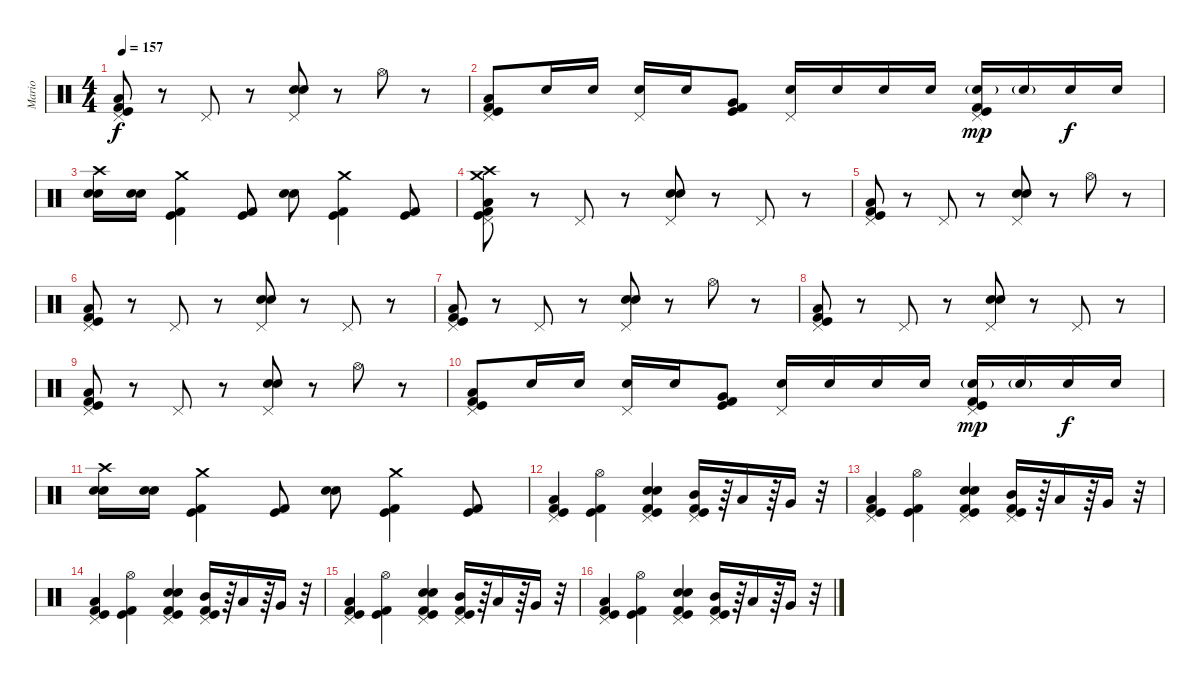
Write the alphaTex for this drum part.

\track ("Mario" "Mario") {instrument percussion}
\staff {score}
\articulation defaults
\ts (4 4)
\tempo 157
\clef neutral
\ks c
("Pedal Hi-Hat (hit)" "Low Floor Tom (hit)" "Kick (hit)" "Kick (hit) 2").8{dy f} r.8 "Pedal Hi-Hat (hit)".8 r.8 ("Pedal Hi-Hat (hit)" "Electric Snare (hit)" "Snare (hit) 2").8 r.8 "Hi-Hat (open)".8 r.8 |
("Pedal Hi-Hat (hit)" "Low Floor Tom (hit)" "Kick (hit)" "Kick (hit) 2").8 "Snare (hit) 2".16 "Snare (hit) 2".16 ("Pedal Hi-Hat (hit)" "Snare (hit) 2").16 "Snare (hit) 2".16 ("Very Low Tom (hit)" "Kick (hit)" "Kick (hit) 2").8 ("Pedal Hi-Hat (hit)" "Snare (hit) 2").16 "Snare (hit) 2".16 "Snare (hit) 2".16 "Snare (hit) 2".16 ("Pedal Hi-Hat (hit)" "Snare (hit) 2"{g} "Kick (hit)" "Kick (hit) 2").16{dy mp} "Snare (hit) 2"{g}.16 "Snare (hit) 2".16{dy f} "Snare (hit) 2".16 |
("Crash high (hit)" "Snare (hit) 2" "Electric Snare (hit)").16 ("Snare (hit) 2" "Electric Snare (hit)").16 ("Crash medium (hit)" "Kick (hit)" "Kick (hit) 2").4 ("Kick (hit)" "Kick (hit) 2").8 ("Snare (hit) 2" "Electric Snare (hit)").8 ("Crash medium (hit)" "Kick (hit)" "Kick (hit) 2").4 ("Kick (hit)" "Kick (hit) 2").8 |
("Pedal Hi-Hat (hit)" "Crash high (hit)" "Crash medium (hit)" "Low Floor Tom (hit)" "Kick (hit)" "Kick (hit) 2").8 r.8 "Pedal Hi-Hat (hit)".8 r.8 ("Pedal Hi-Hat (hit)" "Electric Snare (hit)" "Snare (hit) 2").8 r.8 "Pedal Hi-Hat (hit)".8 r.8 |
("Pedal Hi-Hat (hit)" "Low Floor Tom (hit)" "Kick (hit)" "Kick (hit) 2").8 r.8 "Pedal Hi-Hat (hit)".8 r.8 ("Pedal Hi-Hat (hit)" "Electric Snare (hit)" "Snare (hit) 2").8 r.8 "Hi-Hat (open)".8 r.8 |
("Pedal Hi-Hat (hit)" "Low Floor Tom (hit)" "Kick (hit)" "Kick (hit) 2").8 r.8 "Pedal Hi-Hat (hit)".8 r.8 ("Pedal Hi-Hat (hit)" "Electric Snare (hit)" "Snare (hit) 2").8 r.8 "Pedal Hi-Hat (hit)".8 r.8 |
("Pedal Hi-Hat (hit)" "Low Floor Tom (hit)" "Kick (hit)" "Kick (hit) 2").8 r.8 "Pedal Hi-Hat (hit)".8 r.8 ("Pedal Hi-Hat (hit)" "Electric Snare (hit)" "Snare (hit) 2").8 r.8 "Hi-Hat (open)".8 r.8 |
("Pedal Hi-Hat (hit)" "Low Floor Tom (hit)" "Kick (hit)" "Kick (hit) 2").8 r.8 "Pedal Hi-Hat (hit)".8 r.8 ("Pedal Hi-Hat (hit)" "Electric Snare (hit)" "Snare (hit) 2").8 r.8 "Pedal Hi-Hat (hit)".8 r.8 |
("Pedal Hi-Hat (hit)" "Low Floor Tom (hit)" "Kick (hit)" "Kick (hit) 2").8 r.8 "Pedal Hi-Hat (hit)".8 r.8 ("Pedal Hi-Hat (hit)" "Electric Snare (hit)" "Snare (hit) 2").8 r.8 "Hi-Hat (open)".8 r.8 |
("Pedal Hi-Hat (hit)" "Low Floor Tom (hit)" "Kick (hit)" "Kick (hit) 2").8 "Snare (hit) 2".16 "Snare (hit) 2".16 ("Pedal Hi-Hat (hit)" "Snare (hit) 2").16 "Snare (hit) 2".16 ("Very Low Tom (hit)" "Kick (hit)" "Kick (hit) 2").8 ("Pedal Hi-Hat (hit)" "Snare (hit) 2").16 "Snare (hit) 2".16 "Snare (hit) 2".16 "Snare (hit) 2".16 ("Pedal Hi-Hat (hit)" "Snare (hit) 2"{g} "Kick (hit)" "Kick (hit) 2").16{dy mp} "Snare (hit) 2"{g}.16 "Snare (hit) 2".16{dy f} "Snare (hit) 2".16 |
("Crash high (hit)" "Snare (hit) 2" "Electric Snare (hit)").16 ("Snare (hit) 2" "Electric Snare (hit)").16 ("Crash medium (hit)" "Kick (hit)" "Kick (hit) 2").4 ("Kick (hit)" "Kick (hit) 2").8 ("Snare (hit) 2" "Electric Snare (hit)").8 ("Crash medium (hit)" "Kick (hit)" "Kick (hit) 2").4 ("Kick (hit)" "Kick (hit) 2").8 |
("Pedal Hi-Hat (hit)" "Low Floor Tom (hit)" "Kick (hit)" "Kick (hit) 2").4 ("Hi-Hat (open)" "Kick (hit)" "Kick (hit) 2").4 ("Pedal Hi-Hat (hit)" "Snare (hit) 2" "Electric Snare (hit)" "Kick (hit)" "Kick (hit) 2").4 ("Pedal Hi-Hat (hit)" "Mid Tom (hit)" "Kick (hit)" "Kick (hit) 2").16 r.64 "Low Tom (hit)".16 r.64 "Very Low Tom (hit)".16 r.32 |
("Pedal Hi-Hat (hit)" "Low Floor Tom (hit)" "Kick (hit)" "Kick (hit) 2").4 ("Hi-Hat (open)" "Kick (hit)" "Kick (hit) 2").4 ("Pedal Hi-Hat (hit)" "Snare (hit) 2" "Electric Snare (hit)" "Kick (hit)" "Kick (hit) 2").4 ("Pedal Hi-Hat (hit)" "Mid Tom (hit)" "Kick (hit)" "Kick (hit) 2").16 r.64 "Low Tom (hit)".16 r.64 "Very Low Tom (hit)".16 r.32 |
("Pedal Hi-Hat (hit)" "Low Floor Tom (hit)" "Kick (hit)" "Kick (hit) 2").4 ("Hi-Hat (open)" "Kick (hit)" "Kick (hit) 2").4 ("Pedal Hi-Hat (hit)" "Snare (hit) 2" "Electric Snare (hit)" "Kick (hit)" "Kick (hit) 2").4 ("Pedal Hi-Hat (hit)" "Mid Tom (hit)" "Kick (hit)" "Kick (hit) 2").16 r.64 "Low Tom (hit)".16 r.64 "Very Low Tom (hit)".16 r.32 |
("Pedal Hi-Hat (hit)" "Low Floor Tom (hit)" "Kick (hit)" "Kick (hit) 2").4 ("Hi-Hat (open)" "Kick (hit)" "Kick (hit) 2").4 ("Pedal Hi-Hat (hit)" "Snare (hit) 2" "Electric Snare (hit)" "Kick (hit)" "Kick (hit) 2").4 ("Pedal Hi-Hat (hit)" "Mid Tom (hit)" "Kick (hit)" "Kick (hit) 2").16 r.64 "Low Tom (hit)".16 r.64 "Very Low Tom (hit)".16 r.32 |
("Pedal Hi-Hat (hit)" "Low Floor Tom (hit)" "Kick (hit)" "Kick (hit) 2").4 ("Hi-Hat (open)" "Kick (hit)" "Kick (hit) 2").4 ("Pedal Hi-Hat (hit)" "Snare (hit) 2" "Electric Snare (hit)" "Kick (hit)" "Kick (hit) 2").4 ("Pedal Hi-Hat (hit)" "Mid Tom (hit)" "Kick (hit)" "Kick (hit) 2").16 r.64 "Low Tom (hit)".16 r.64 "Very Low Tom (hit)".16 r.32
